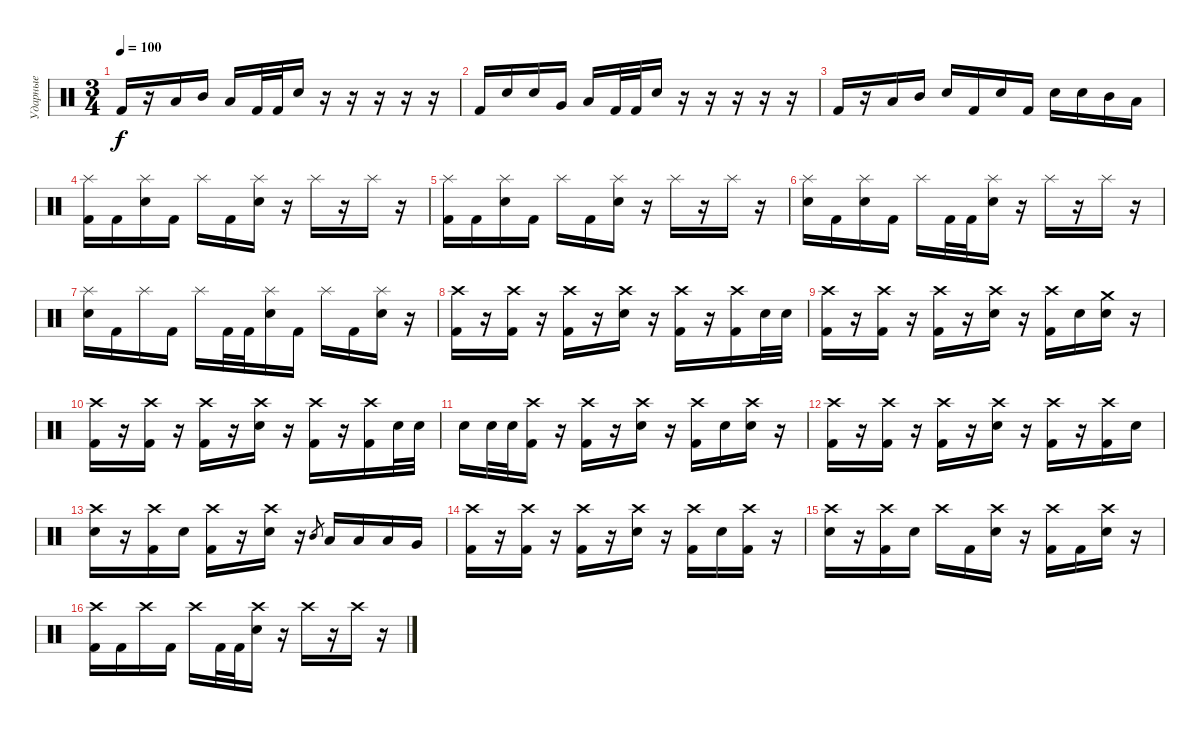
\track ("Ударные" "Ударные") {instrument percussion}
\staff {score}
\articulation defaults
\ts (3 4)
\tempo 100
\clef neutral
\ks c "Kick (hit) 2".16{dy f}
r.16 "Low Tom (hit)".16 "Mid Tom (hit)".16 "Low Tom (hit)".16 "Kick (hit) 2".32 "Kick (hit) 2".32 "Electric Snare (hit)".16 r.16 r.16 r.16 r.16 r.16 |
"Kick (hit) 2".16 "Electric Snare (hit)".16 "Electric Snare (hit)".16 "Very Low Tom (hit)".16 "Low Tom (hit)".16 "Kick (hit) 2".32 "Kick (hit) 2".32 "Electric Snare (hit)".16 r.16 r.16 r.16 r.16 r.16 |
"Kick (hit) 2".16 r.16 "Low Tom (hit)".16 "Mid Tom (hit)".16 "Electric Snare (hit)".16 "Kick (hit) 2".16 "Electric Snare (hit)".16 "Kick (hit) 2".16 "Electric Snare (hit)".16 "Electric Snare (hit)".16 "Mid Tom (hit)".16 "Low Tom (hit)".16 |
("Splash (hit)" "Kick (hit) 2").16 "Kick (hit) 2".16 ("Splash (hit)" "Electric Snare (hit)").16 "Kick (hit) 2".16 "Splash (hit)".16 "Kick (hit) 2".16 ("Splash (hit)" "Electric Snare (hit)").16 r.16 "Splash (hit)".16 r.16 "Splash (hit)".16 r.16 |
("Splash (hit)" "Kick (hit) 2").16 "Kick (hit) 2".16 ("Splash (hit)" "Electric Snare (hit)").16 "Kick (hit) 2".16 "Splash (hit)".16 "Kick (hit) 2".16 ("Splash (hit)" "Electric Snare (hit)").16 r.16 "Splash (hit)".16 r.16 "Splash (hit)".16 r.16 |
("Splash (hit)" "Electric Snare (hit)").16 "Kick (hit) 2".16 ("Splash (hit)" "Electric Snare (hit)").16 "Kick (hit) 2".16 "Splash (hit)".16 "Kick (hit) 2".32 "Kick (hit) 2".32 ("Splash (hit)" "Electric Snare (hit)").16 r.16 "Splash (hit)".16 r.16 "Splash (hit)".16 r.16 |
("Splash (hit)" "Electric Snare (hit)").16 "Kick (hit) 2".16 "Splash (hit)".16 "Kick (hit) 2".16 "Splash (hit)".16 "Kick (hit) 2".32 "Kick (hit) 2".32 ("Splash (hit)" "Electric Snare (hit)").16 "Kick (hit) 2".16 "Splash (hit)".16 "Kick (hit) 2".16 ("Splash (hit)" "Electric Snare (hit)").16 r.16 |
("Crash high (hit)" "Kick (hit) 2").16 r.16 ("Crash high (hit)" "Kick (hit) 2").16 r.16 ("Crash high (hit)" "Kick (hit) 2").16 r.16 ("Crash high (hit)" "Electric Snare (hit)").16 r.16 ("Crash high (hit)" "Kick (hit) 2").16 r.16 ("Crash high (hit)" "Kick (hit) 2").16 "Electric Snare (hit)".32 "Electric Snare (hit)".32 |
("Crash high (hit)" "Kick (hit) 2").16 r.16 ("Crash high (hit)" "Kick (hit) 2").16 r.16 ("Crash high (hit)" "Kick (hit) 2").16 r.16 ("Crash high (hit)" "Electric Snare (hit)").16 r.16 ("Crash high (hit)" "Kick (hit) 2").16 "Electric Snare (hit)".16 ("Crash medium (hit)" "Electric Snare (hit)").16 r.16 |
("Crash high (hit)" "Kick (hit) 2").16 r.16 ("Crash high (hit)" "Kick (hit) 2").16 r.16 ("Crash high (hit)" "Kick (hit) 2").16 r.16 ("Crash high (hit)" "Electric Snare (hit)").16 r.16 ("Crash high (hit)" "Kick (hit) 2").16 r.16 ("Crash high (hit)" "Kick (hit) 2").16 "Electric Snare (hit)".32 "Electric Snare (hit)".32 |
"Electric Snare (hit)".16 "Electric Snare (hit)".32 "Electric Snare (hit)".32 ("Crash high (hit)" "Kick (hit) 2").16 r.16 ("Crash high (hit)" "Kick (hit) 2").16 r.16 ("Crash high (hit)" "Electric Snare (hit)").16 r.16 ("Crash high (hit)" "Kick (hit) 2").16 "Electric Snare (hit)".16 ("Crash high (hit)" "Electric Snare (hit)").16 r.16 |
("Crash high (hit)" "Kick (hit) 2").16 r.16 ("Crash high (hit)" "Kick (hit) 2").16 r.16 ("Crash high (hit)" "Kick (hit) 2").16 r.16 ("Crash high (hit)" "Electric Snare (hit)").16 r.16 ("Crash high (hit)" "Kick (hit) 2").16 r.16 ("Crash high (hit)" "Kick (hit) 2").16 "Electric Snare (hit)".16 |
("Crash high (hit)" "Electric Snare (hit)").16 r.16 ("Crash high (hit)" "Kick (hit) 2").16 "Electric Snare (hit)".16 ("Crash high (hit)" "Kick (hit) 2").16 r.16 ("Crash high (hit)" "Electric Snare (hit)").16 r.16 "Mid Tom (hit)".8{gr} "Low Tom (hit)".16 "Low Tom (hit)".16 "Low Tom (hit)".16 "Very Low Tom (hit)".16 |
("Crash high (hit)" "Kick (hit) 2").16 r.16 ("Crash high (hit)" "Kick (hit) 2").16 r.16 ("Crash high (hit)" "Kick (hit) 2").16 r.16 ("Crash high (hit)" "Electric Snare (hit)").16 r.16 ("Crash high (hit)" "Kick (hit) 2").16 "Electric Snare (hit)".16 ("Crash high (hit)" "Kick (hit) 2").16 r.16 |
("Crash high (hit)" "Electric Snare (hit)").16 r.16 ("Crash high (hit)" "Kick (hit) 2").16 "Electric Snare (hit)".16 "Crash high (hit)".16 "Kick (hit) 2".16 ("Crash high (hit)" "Electric Snare (hit)").16 r.16 ("Crash high (hit)" "Kick (hit) 2").16 "Kick (hit) 2".16 ("Crash high (hit)" "Electric Snare (hit)").16 r.16 |
("Crash high (hit)" "Kick (hit) 2").16 "Kick (hit) 2".16 "Crash high (hit)".16 "Kick (hit) 2".16 "Crash high (hit)".16 "Kick (hit) 2".32 "Kick (hit) 2".32 ("Crash high (hit)" "Electric Snare (hit)").16 r.16 "Crash high (hit)".16 r.16 "Crash high (hit)".16 r.16
